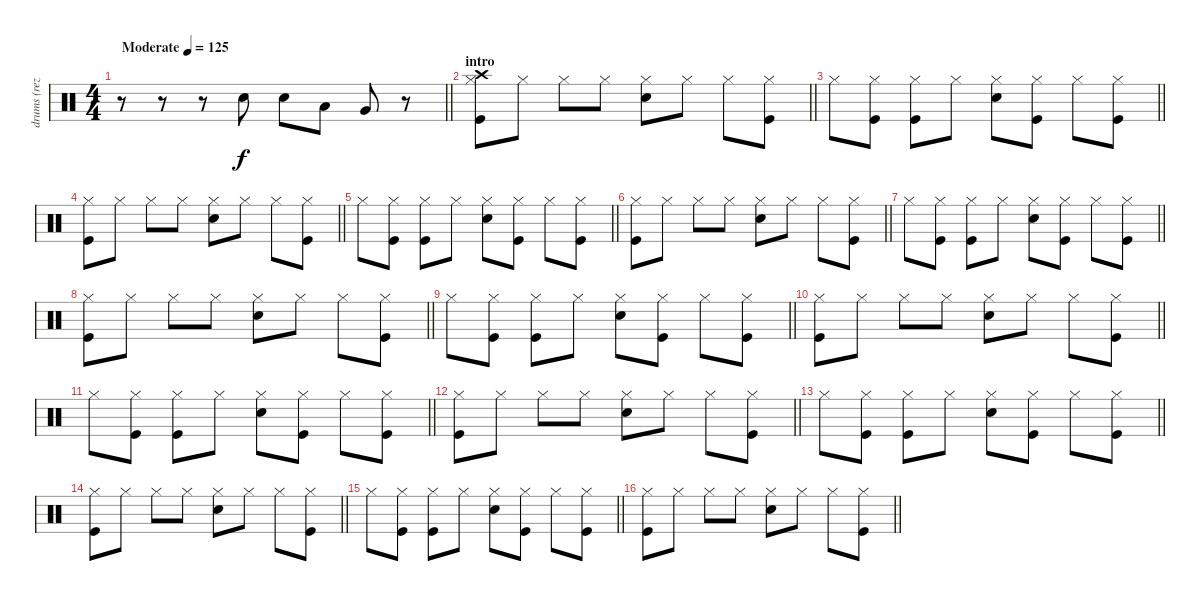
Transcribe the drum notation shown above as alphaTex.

\track ("drums (reza)" "drums (rez") {instrument percussion}
\staff {score}
\articulation defaults
\ts (4 4)
\tempo (125 "Moderate")
\clef neutral
\barLineRight lightlight
\ks c
r.8{dy f} r.8 r.8 "Snare (hit) 2".8 "Snare (hit) 2".8 "Low Tom (hit)".8 "Very Low Tom (hit)".8 r.8 |
\section ("" "intro")
\barLineRight lightlight
("Hi-Hat (closed)" "Kick (hit)" "Crash high (hit)").8 "Hi-Hat (closed)".8 "Hi-Hat (closed)".8 "Hi-Hat (closed)".8 ("Hi-Hat (closed)" "Snare (hit) 2").8 "Hi-Hat (closed)".8 "Hi-Hat (closed)".8 ("Hi-Hat (closed)" "Kick (hit)").8 |
\barLineRight lightlight "Hi-Hat (closed)".8
("Hi-Hat (closed)" "Kick (hit)").8 ("Hi-Hat (closed)" "Kick (hit)").8 "Hi-Hat (closed)".8 ("Hi-Hat (closed)" "Snare (hit) 2").8 ("Hi-Hat (closed)" "Kick (hit)").8 "Hi-Hat (closed)".8 ("Hi-Hat (closed)" "Kick (hit)").8 |
\barLineRight lightlight
("Hi-Hat (closed)" "Kick (hit)").8 "Hi-Hat (closed)".8 "Hi-Hat (closed)".8 "Hi-Hat (closed)".8 ("Hi-Hat (closed)" "Snare (hit) 2").8 "Hi-Hat (closed)".8 "Hi-Hat (closed)".8 ("Hi-Hat (closed)" "Kick (hit)").8 |
\barLineRight lightlight "Hi-Hat (closed)".8
("Hi-Hat (closed)" "Kick (hit)").8 ("Hi-Hat (closed)" "Kick (hit)").8 "Hi-Hat (closed)".8 ("Hi-Hat (closed)" "Snare (hit) 2").8 ("Hi-Hat (closed)" "Kick (hit)").8 "Hi-Hat (closed)".8 ("Hi-Hat (closed)" "Kick (hit)").8 |
\barLineRight lightlight
("Hi-Hat (closed)" "Kick (hit)").8 "Hi-Hat (closed)".8 "Hi-Hat (closed)".8 "Hi-Hat (closed)".8 ("Hi-Hat (closed)" "Snare (hit) 2").8 "Hi-Hat (closed)".8 "Hi-Hat (closed)".8 ("Hi-Hat (closed)" "Kick (hit)").8 |
\barLineRight lightlight "Hi-Hat (closed)".8
("Hi-Hat (closed)" "Kick (hit)").8 ("Hi-Hat (closed)" "Kick (hit)").8 "Hi-Hat (closed)".8 ("Hi-Hat (closed)" "Snare (hit) 2").8 ("Hi-Hat (closed)" "Kick (hit)").8 "Hi-Hat (closed)".8 ("Hi-Hat (closed)" "Kick (hit)").8 |
\barLineRight lightlight
("Hi-Hat (closed)" "Kick (hit)").8 "Hi-Hat (closed)".8 "Hi-Hat (closed)".8 "Hi-Hat (closed)".8 ("Hi-Hat (closed)" "Snare (hit) 2").8 "Hi-Hat (closed)".8 "Hi-Hat (closed)".8 ("Hi-Hat (closed)" "Kick (hit)").8 |
\barLineRight lightlight "Hi-Hat (closed)".8
("Hi-Hat (closed)" "Kick (hit)").8 ("Hi-Hat (closed)" "Kick (hit)").8 "Hi-Hat (closed)".8 ("Hi-Hat (closed)" "Snare (hit) 2").8 ("Hi-Hat (closed)" "Kick (hit)").8 "Hi-Hat (closed)".8 ("Hi-Hat (closed)" "Kick (hit)").8 |
\barLineRight lightlight
("Hi-Hat (closed)" "Kick (hit)").8 "Hi-Hat (closed)".8 "Hi-Hat (closed)".8 "Hi-Hat (closed)".8 ("Hi-Hat (closed)" "Snare (hit) 2").8 "Hi-Hat (closed)".8 "Hi-Hat (closed)".8 ("Hi-Hat (closed)" "Kick (hit)").8 |
\barLineRight lightlight "Hi-Hat (closed)".8
("Hi-Hat (closed)" "Kick (hit)").8 ("Hi-Hat (closed)" "Kick (hit)").8 "Hi-Hat (closed)".8 ("Hi-Hat (closed)" "Snare (hit) 2").8 ("Hi-Hat (closed)" "Kick (hit)").8 "Hi-Hat (closed)".8 ("Hi-Hat (closed)" "Kick (hit)").8 |
\barLineRight lightlight
("Hi-Hat (closed)" "Kick (hit)").8 "Hi-Hat (closed)".8 "Hi-Hat (closed)".8 "Hi-Hat (closed)".8 ("Hi-Hat (closed)" "Snare (hit) 2").8 "Hi-Hat (closed)".8 "Hi-Hat (closed)".8 ("Hi-Hat (closed)" "Kick (hit)").8 |
\barLineRight lightlight "Hi-Hat (closed)".8
("Hi-Hat (closed)" "Kick (hit)").8 ("Hi-Hat (closed)" "Kick (hit)").8 "Hi-Hat (closed)".8 ("Hi-Hat (closed)" "Snare (hit) 2").8 ("Hi-Hat (closed)" "Kick (hit)").8 "Hi-Hat (closed)".8 ("Hi-Hat (closed)" "Kick (hit)").8 |
\barLineRight lightlight
("Hi-Hat (closed)" "Kick (hit)").8 "Hi-Hat (closed)".8 "Hi-Hat (closed)".8 "Hi-Hat (closed)".8 ("Hi-Hat (closed)" "Snare (hit) 2").8 "Hi-Hat (closed)".8 "Hi-Hat (closed)".8 ("Hi-Hat (closed)" "Kick (hit)").8 |
\barLineRight lightlight "Hi-Hat (closed)".8
("Hi-Hat (closed)" "Kick (hit)").8 ("Hi-Hat (closed)" "Kick (hit)").8 "Hi-Hat (closed)".8 ("Hi-Hat (closed)" "Snare (hit) 2").8 ("Hi-Hat (closed)" "Kick (hit)").8 "Hi-Hat (closed)".8 ("Hi-Hat (closed)" "Kick (hit)").8 |
\barLineRight lightlight
("Hi-Hat (closed)" "Kick (hit)").8 "Hi-Hat (closed)".8 "Hi-Hat (closed)".8 "Hi-Hat (closed)".8 ("Hi-Hat (closed)" "Snare (hit) 2").8 "Hi-Hat (closed)".8 "Hi-Hat (closed)".8 ("Hi-Hat (closed)" "Kick (hit)").8
